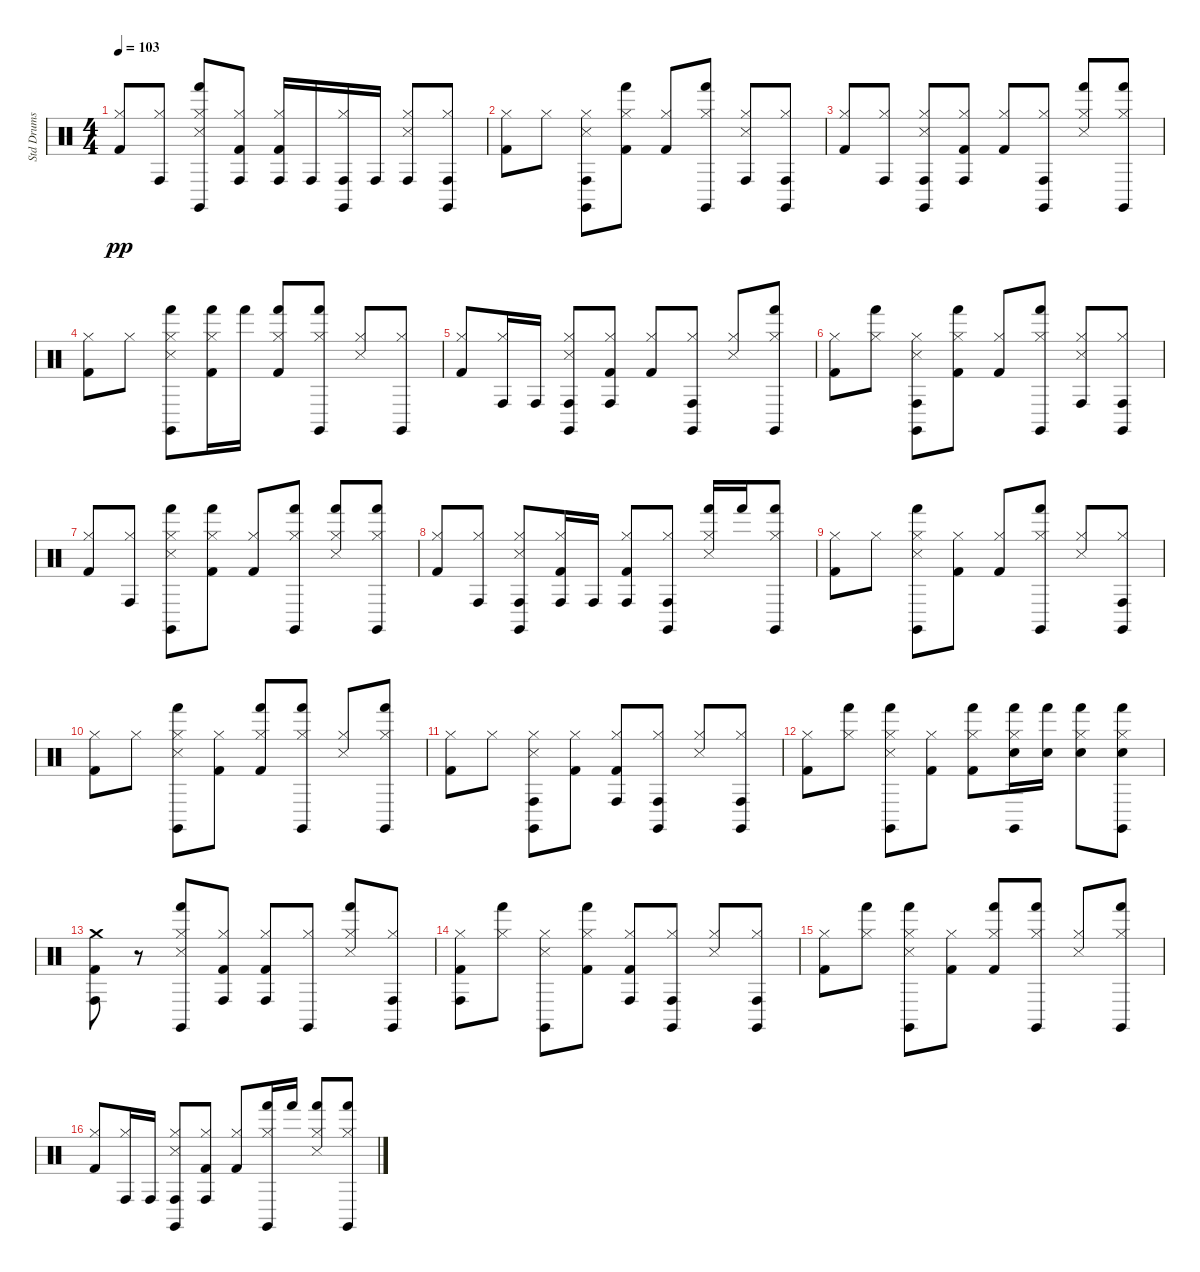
\track ("Std Drums " "Std Drums ") {instrument percussion}
\staff {score}
\articulation defaults
\ts (4 4)
\tempo 103
\clef neutral
\ks c
("Kick (hit) 2" "Hi-Hat (closed)").8{dy pp} ("Conga high (hit)" "Hi-Hat (closed)").8 ("Hand (hit)" "Claves (hit)" "Hi-Hat (closed)" "Snare (side stick) 3").8 ("Hi-Hat (closed)" "Conga high (hit)" "Kick (hit) 2").8 ("Hi-Hat (closed)" "Kick (hit) 2" "Conga high (hit)").16 "Conga high (hit)".16 ("Claves (hit)" "Hi-Hat (closed)" "Conga high (hit)").16 "Conga high (hit)".16 ("Conga high (hit)" "Hi-Hat (closed)" "Snare (side stick) 3").8 ("Claves (hit)" "Hi-Hat (closed)" "Conga high (hit)").8 |
("Kick (hit) 2" "Hi-Hat (closed)").8 "Hi-Hat (closed)".8 ("Hi-Hat (closed)" "Claves (hit)" "Snare (side stick) 3" "Conga high (hit)").8 ("Hand (hit)" "Kick (hit) 2" "Hi-Hat (closed)").8 ("Hi-Hat (closed)" "Kick (hit) 2").8 ("Claves (hit)" "Hi-Hat (closed)" "Hand (hit)").8 ("Conga high (hit)" "Snare (side stick) 3" "Hi-Hat (closed)").8 ("Claves (hit)" "Hi-Hat (closed)" "Conga high (hit)").8 |
("Hi-Hat (closed)" "Kick (hit) 2").8 ("Conga high (hit)" "Hi-Hat (closed)").8 ("Snare (side stick) 3" "Hi-Hat (closed)" "Claves (hit)" "Conga high (hit)").8 ("Kick (hit) 2" "Conga high (hit)" "Hi-Hat (closed)").8 ("Kick (hit) 2" "Hi-Hat (closed)").8 ("Hi-Hat (closed)" "Claves (hit)" "Conga high (hit)").8 ("Hi-Hat (closed)" "Snare (side stick) 3" "Hand (hit)").8 ("Hi-Hat (closed)" "Hand (hit)" "Claves (hit)").8 |
("Kick (hit) 2" "Hi-Hat (closed)").8 "Hi-Hat (closed)".8 ("Hand (hit)" "Claves (hit)" "Hi-Hat (closed)" "Snare (side stick) 3").8 ("Hand (hit)" "Hi-Hat (closed)" "Kick (hit) 2").16 "Hand (hit)".16 ("Hand (hit)" "Hi-Hat (closed)" "Kick (hit) 2").8 ("Hi-Hat (closed)" "Hand (hit)" "Claves (hit)").8 ("Snare (side stick) 3" "Hi-Hat (closed)").8 ("Hi-Hat (closed)" "Claves (hit)").8 |
("Hi-Hat (closed)" "Kick (hit) 2").8 ("Hi-Hat (closed)" "Conga high (hit)").16 "Conga high (hit)".16 ("Hi-Hat (closed)" "Claves (hit)" "Snare (side stick) 3" "Conga high (hit)").8 ("Conga high (hit)" "Kick (hit) 2" "Hi-Hat (closed)").8 ("Kick (hit) 2" "Hi-Hat (closed)").8 ("Claves (hit)" "Conga high (hit)" "Hi-Hat (closed)").8 ("Hi-Hat (closed)" "Snare (side stick) 3").8 ("Claves (hit)" "Hi-Hat (closed)" "Hand (hit)").8 |
("Hi-Hat (closed)" "Kick (hit) 2").8 ("Hi-Hat (closed)" "Hand (hit)").8 ("Snare (side stick) 3" "Hi-Hat (closed)" "Conga high (hit)" "Claves (hit)").8 ("Hand (hit)" "Hi-Hat (closed)" "Kick (hit) 2").8 ("Kick (hit) 2" "Hi-Hat (closed)").8 ("Claves (hit)" "Hand (hit)" "Hi-Hat (closed)").8 ("Conga high (hit)" "Snare (side stick) 3" "Hi-Hat (closed)").8 ("Claves (hit)" "Hi-Hat (closed)" "Conga high (hit)").8 |
("Hi-Hat (closed)" "Kick (hit) 2").8 ("Conga high (hit)" "Hi-Hat (closed)").8 ("Snare (side stick) 3" "Hi-Hat (closed)" "Claves (hit)" "Hand (hit)").8 ("Hand (hit)" "Hi-Hat (closed)" "Kick (hit) 2").8 ("Kick (hit) 2" "Hi-Hat (closed)").8 ("Hi-Hat (closed)" "Hand (hit)" "Claves (hit)").8 ("Snare (side stick) 3" "Hi-Hat (closed)" "Hand (hit)").8 ("Hi-Hat (closed)" "Claves (hit)" "Hand (hit)").8 |
("Kick (hit) 2" "Hi-Hat (closed)").8 ("Hi-Hat (closed)" "Conga high (hit)").8 ("Hi-Hat (closed)" "Snare (side stick) 3" "Conga high (hit)" "Claves (hit)").8 ("Kick (hit) 2" "Conga high (hit)" "Hi-Hat (closed)").16 "Conga high (hit)".16 ("Hi-Hat (closed)" "Kick (hit) 2" "Conga high (hit)").8 ("Conga high (hit)" "Claves (hit)" "Hi-Hat (closed)").8 ("Hi-Hat (closed)" "Hand (hit)" "Snare (side stick) 3").16 "Hand (hit)".16 ("Claves (hit)" "Hi-Hat (closed)" "Hand (hit)").8 |
("Kick (hit) 2" "Hi-Hat (closed)").8 "Hi-Hat (closed)".8 ("Claves (hit)" "Snare (side stick) 3" "Hand (hit)" "Hi-Hat (closed)").8 ("Kick (hit) 2" "Hi-Hat (closed)").8 ("Hi-Hat (closed)" "Kick (hit) 2").8 ("Hand (hit)" "Claves (hit)" "Hi-Hat (closed)").8 ("Hi-Hat (closed)" "Snare (side stick) 3").8 ("Hi-Hat (closed)" "Conga high (hit)" "Claves (hit)").8 |
("Kick (hit) 2" "Hi-Hat (closed)").8 "Hi-Hat (closed)".8 ("Snare (side stick) 3" "Hand (hit)" "Claves (hit)" "Hi-Hat (closed)").8 ("Kick (hit) 2" "Hi-Hat (closed)").8 ("Hand (hit)" "Hi-Hat (closed)" "Kick (hit) 2").8 ("Hand (hit)" "Hi-Hat (closed)" "Claves (hit)").8 ("Hi-Hat (closed)" "Snare (side stick) 3").8 ("Claves (hit)" "Hi-Hat (closed)" "Hand (hit)").8 |
("Kick (hit) 2" "Hi-Hat (closed)").8 "Hi-Hat (closed)".8 ("Hi-Hat (closed)" "Claves (hit)" "Snare (side stick) 3" "Conga high (hit)").8 ("Kick (hit) 2" "Hi-Hat (closed)").8 ("Conga high (hit)" "Kick (hit) 2" "Hi-Hat (closed)").8 ("Hi-Hat (closed)" "Claves (hit)" "Conga high (hit)").8 ("Hi-Hat (closed)" "Snare (side stick) 3").8 ("Hi-Hat (closed)" "Claves (hit)" "Conga high (hit)").8 |
("Hi-Hat (closed)" "Kick (hit) 2").8 ("Hi-Hat (closed)" "Hand (hit)").8 ("Hi-Hat (closed)" "Claves (hit)" "Hand (hit)" "Snare (side stick) 3").8 ("Kick (hit) 2" "Hi-Hat (closed)").8 ("Hi-Hat (closed)" "Hand (hit)" "Kick (hit) 2").8 ("Hand (hit)" "Claves (hit)" "Snare (hit) 2" "Hi-Hat (closed)").16 ("Snare (hit) 2" "Hand (hit)").16 ("Hi-Hat (closed)" "Snare (hit) 2" "Hand (hit)").8 ("Hand (hit)" "Hi-Hat (closed)" "Claves (hit)" "Snare (hit) 2").8 |
("Kick (hit) 2" "Crash medium (hit)" "Conga high (hit)").8 r.8 ("Hand (hit)" "Snare (side stick) 3" "Claves (hit)" "Hi-Hat (closed)").8 ("Hi-Hat (closed)" "Kick (hit) 2" "Conga high (hit)").8 ("Conga high (hit)" "Hi-Hat (closed)" "Kick (hit) 2").8 ("Claves (hit)" "Hi-Hat (closed)").8 ("Snare (side stick) 3" "Hand (hit)" "Hi-Hat (closed)").8 ("Claves (hit)" "Conga high (hit)" "Hi-Hat (closed)").8 |
("Conga high (hit)" "Kick (hit) 2" "Hi-Hat (closed)").8 ("Hi-Hat (closed)" "Hand (hit)").8 ("Claves (hit)" "Snare (side stick) 3" "Hi-Hat (closed)").8 ("Hi-Hat (closed)" "Kick (hit) 2" "Hand (hit)").8 ("Conga high (hit)" "Kick (hit) 2" "Hi-Hat (closed)").8 ("Claves (hit)" "Conga high (hit)" "Hi-Hat (closed)").8 ("Hi-Hat (closed)" "Snare (side stick) 3").8 ("Conga high (hit)" "Hi-Hat (closed)" "Claves (hit)").8 |
("Kick (hit) 2" "Hi-Hat (closed)").8 ("Hi-Hat (closed)" "Hand (hit)").8 ("Hand (hit)" "Hi-Hat (closed)" "Claves (hit)" "Snare (side stick) 3").8 ("Kick (hit) 2" "Hi-Hat (closed)").8 ("Kick (hit) 2" "Hand (hit)" "Hi-Hat (closed)").8 ("Hi-Hat (closed)" "Claves (hit)" "Hand (hit)").8 ("Hi-Hat (closed)" "Snare (side stick) 3").8 ("Hand (hit)" "Hi-Hat (closed)" "Claves (hit)").8 |
("Kick (hit) 2" "Hi-Hat (closed)").8 ("Conga high (hit)" "Hi-Hat (closed)").16 "Conga high (hit)".16 ("Claves (hit)" "Snare (side stick) 3" "Hi-Hat (closed)" "Conga high (hit)").8 ("Hi-Hat (closed)" "Conga high (hit)" "Kick (hit) 2").8 ("Kick (hit) 2" "Hi-Hat (closed)").8 ("Claves (hit)" "Hand (hit)" "Hi-Hat (closed)").16 "Hand (hit)".16 ("Hi-Hat (closed)" "Snare (side stick) 3" "Hand (hit)").8 ("Hi-Hat (closed)" "Claves (hit)" "Hand (hit)").8
